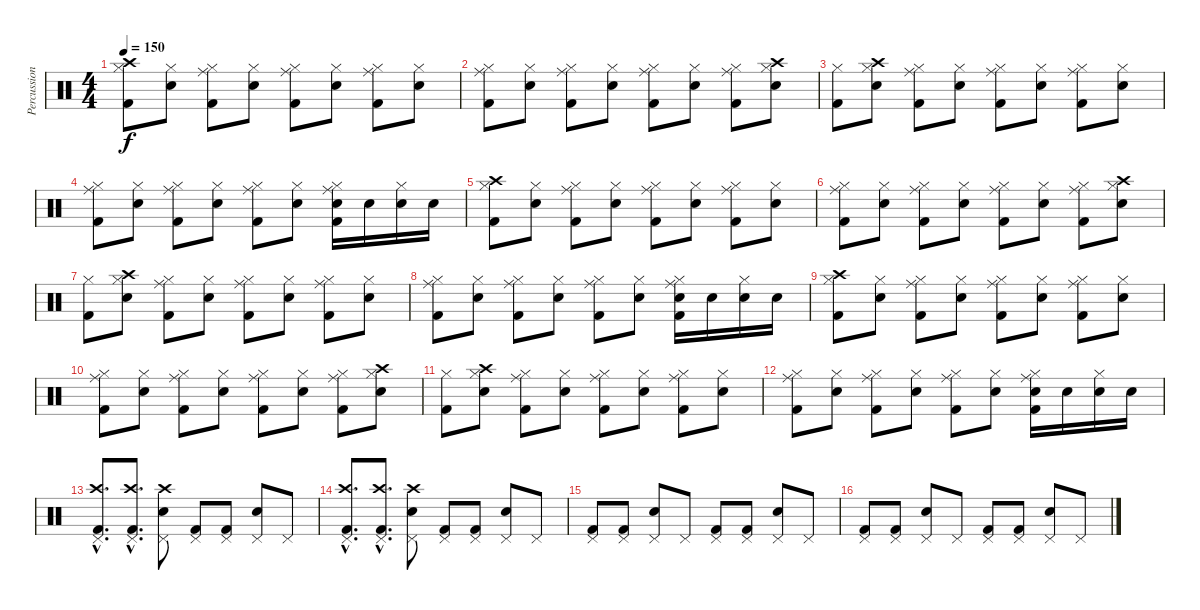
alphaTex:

\track ("Percussion" "Percussion") {instrument percussion}
\staff {score}
\articulation defaults
\ts (4 4)
\tempo 150
\clef neutral
\ks c
("Hi-Hat (closed)" "Kick (hit) 2" "Crash high (hit)").8{dy f} ("Hi-Hat (closed)" "Electric Snare (hit)").8 ("Hi-Hat (closed)" "Kick (hit) 2" "Ride (middle)").8 ("Hi-Hat (closed)" "Electric Snare (hit)").8 ("Hi-Hat (closed)" "Kick (hit) 2" "Ride (middle)").8 ("Hi-Hat (closed)" "Electric Snare (hit)").8 ("Hi-Hat (closed)" "Kick (hit) 2" "Ride (middle)").8 ("Hi-Hat (closed)" "Electric Snare (hit)").8 |
("Hi-Hat (closed)" "Kick (hit) 2" "Ride (middle)").8 ("Hi-Hat (closed)" "Electric Snare (hit)").8 ("Hi-Hat (closed)" "Kick (hit) 2" "Ride (middle)").8 ("Hi-Hat (closed)" "Electric Snare (hit)").8 ("Hi-Hat (closed)" "Kick (hit) 2" "Ride (middle)").8 ("Hi-Hat (closed)" "Electric Snare (hit)").8 ("Hi-Hat (closed)" "Kick (hit) 2" "Ride (middle)").8 ("Hi-Hat (closed)" "Electric Snare (hit)" "Crash high (hit)").8 |
("Hi-Hat (closed)" "Kick (hit) 2").8 ("Hi-Hat (closed)" "Electric Snare (hit)" "Crash high (hit)").8 ("Hi-Hat (closed)" "Kick (hit) 2" "Ride (middle)").8 ("Hi-Hat (closed)" "Electric Snare (hit)").8 ("Hi-Hat (closed)" "Kick (hit) 2" "Ride (middle)").8 ("Hi-Hat (closed)" "Electric Snare (hit)").8 ("Hi-Hat (closed)" "Kick (hit) 2" "Ride (middle)").8 ("Hi-Hat (closed)" "Electric Snare (hit)").8 |
("Hi-Hat (closed)" "Kick (hit) 2" "Ride (middle)").8 ("Hi-Hat (closed)" "Electric Snare (hit)").8 ("Hi-Hat (closed)" "Kick (hit) 2" "Ride (middle)").8 ("Hi-Hat (closed)" "Electric Snare (hit)").8 ("Hi-Hat (closed)" "Kick (hit) 2" "Ride (middle)").8 ("Hi-Hat (closed)" "Electric Snare (hit)").8 ("Hi-Hat (closed)" "Electric Snare (hit)" "Kick (hit) 2" "Ride (middle)").16 "Electric Snare (hit)".16 ("Hi-Hat (closed)" "Electric Snare (hit)").16 "Electric Snare (hit)".16 |
("Hi-Hat (closed)" "Kick (hit) 2" "Crash high (hit)").8 ("Hi-Hat (closed)" "Electric Snare (hit)").8 ("Hi-Hat (closed)" "Kick (hit) 2" "Ride (middle)").8 ("Hi-Hat (closed)" "Electric Snare (hit)").8 ("Hi-Hat (closed)" "Kick (hit) 2" "Ride (middle)").8 ("Hi-Hat (closed)" "Electric Snare (hit)").8 ("Hi-Hat (closed)" "Kick (hit) 2" "Ride (middle)").8 ("Hi-Hat (closed)" "Electric Snare (hit)").8 |
("Hi-Hat (closed)" "Kick (hit) 2" "Ride (middle)").8 ("Hi-Hat (closed)" "Electric Snare (hit)").8 ("Hi-Hat (closed)" "Kick (hit) 2" "Ride (middle)").8 ("Hi-Hat (closed)" "Electric Snare (hit)").8 ("Hi-Hat (closed)" "Kick (hit) 2" "Ride (middle)").8 ("Hi-Hat (closed)" "Electric Snare (hit)").8 ("Hi-Hat (closed)" "Kick (hit) 2" "Ride (middle)").8 ("Hi-Hat (closed)" "Electric Snare (hit)" "Crash high (hit)").8 |
("Hi-Hat (closed)" "Kick (hit) 2").8 ("Hi-Hat (closed)" "Electric Snare (hit)" "Crash high (hit)").8 ("Hi-Hat (closed)" "Kick (hit) 2" "Ride (middle)").8 ("Hi-Hat (closed)" "Electric Snare (hit)").8 ("Hi-Hat (closed)" "Kick (hit) 2" "Ride (middle)").8 ("Hi-Hat (closed)" "Electric Snare (hit)").8 ("Hi-Hat (closed)" "Kick (hit) 2" "Ride (middle)").8 ("Hi-Hat (closed)" "Electric Snare (hit)").8 |
("Hi-Hat (closed)" "Kick (hit) 2" "Ride (middle)").8 ("Hi-Hat (closed)" "Electric Snare (hit)").8 ("Hi-Hat (closed)" "Kick (hit) 2" "Ride (middle)").8 ("Hi-Hat (closed)" "Electric Snare (hit)").8 ("Hi-Hat (closed)" "Kick (hit) 2" "Ride (middle)").8 ("Hi-Hat (closed)" "Electric Snare (hit)").8 ("Hi-Hat (closed)" "Electric Snare (hit)" "Kick (hit) 2" "Ride (middle)").16 "Electric Snare (hit)".16 ("Hi-Hat (closed)" "Electric Snare (hit)").16 "Electric Snare (hit)".16 |
("Hi-Hat (closed)" "Kick (hit) 2" "Crash high (hit)").8 ("Hi-Hat (closed)" "Electric Snare (hit)").8 ("Hi-Hat (closed)" "Kick (hit) 2" "Ride (middle)").8 ("Hi-Hat (closed)" "Electric Snare (hit)").8 ("Hi-Hat (closed)" "Kick (hit) 2" "Ride (middle)").8 ("Hi-Hat (closed)" "Electric Snare (hit)").8 ("Hi-Hat (closed)" "Kick (hit) 2" "Ride (middle)").8 ("Hi-Hat (closed)" "Electric Snare (hit)").8 |
("Hi-Hat (closed)" "Kick (hit) 2" "Ride (middle)").8 ("Hi-Hat (closed)" "Electric Snare (hit)").8 ("Hi-Hat (closed)" "Kick (hit) 2" "Ride (middle)").8 ("Hi-Hat (closed)" "Electric Snare (hit)").8 ("Hi-Hat (closed)" "Kick (hit) 2" "Ride (middle)").8 ("Hi-Hat (closed)" "Electric Snare (hit)").8 ("Hi-Hat (closed)" "Kick (hit) 2" "Ride (middle)").8 ("Hi-Hat (closed)" "Electric Snare (hit)" "Crash high (hit)").8 |
("Hi-Hat (closed)" "Kick (hit) 2").8 ("Hi-Hat (closed)" "Electric Snare (hit)" "Crash high (hit)").8 ("Hi-Hat (closed)" "Kick (hit) 2" "Ride (middle)").8 ("Hi-Hat (closed)" "Electric Snare (hit)").8 ("Hi-Hat (closed)" "Kick (hit) 2" "Ride (middle)").8 ("Hi-Hat (closed)" "Electric Snare (hit)").8 ("Hi-Hat (closed)" "Kick (hit) 2" "Ride (middle)").8 ("Hi-Hat (closed)" "Electric Snare (hit)").8 |
("Hi-Hat (closed)" "Kick (hit) 2" "Ride (middle)").8 ("Hi-Hat (closed)" "Electric Snare (hit)").8 ("Hi-Hat (closed)" "Kick (hit) 2" "Ride (middle)").8 ("Hi-Hat (closed)" "Electric Snare (hit)").8 ("Hi-Hat (closed)" "Kick (hit) 2" "Ride (middle)").8 ("Hi-Hat (closed)" "Electric Snare (hit)").8 ("Hi-Hat (closed)" "Electric Snare (hit)" "Kick (hit) 2" "Ride (middle)").16 "Electric Snare (hit)".16 ("Hi-Hat (closed)" "Electric Snare (hit)").16 "Electric Snare (hit)".16 |
("Pedal Hi-Hat (hit)"{hac} "Kick (hit) 2"{hac} "Crash high (hit)"{hac}).8{d} ("Pedal Hi-Hat (hit)"{hac} "Kick (hit) 2"{hac} "Crash high (hit)"{hac}).8{d} ("Pedal Hi-Hat (hit)" "Electric Snare (hit)" "Crash high (hit)").8 ("Pedal Hi-Hat (hit)" "Kick (hit) 2").8 ("Pedal Hi-Hat (hit)" "Kick (hit) 2").8 ("Pedal Hi-Hat (hit)" "Electric Snare (hit)").8 "Pedal Hi-Hat (hit)".8 |
("Pedal Hi-Hat (hit)"{hac} "Kick (hit) 2"{hac} "Crash high (hit)"{hac}).8{d} ("Pedal Hi-Hat (hit)"{hac} "Kick (hit) 2"{hac} "Crash high (hit)"{hac}).8{d} ("Pedal Hi-Hat (hit)" "Electric Snare (hit)" "Crash high (hit)").8 ("Pedal Hi-Hat (hit)" "Kick (hit) 2").8 ("Pedal Hi-Hat (hit)" "Kick (hit) 2").8 ("Pedal Hi-Hat (hit)" "Electric Snare (hit)").8 "Pedal Hi-Hat (hit)".8 |
("Pedal Hi-Hat (hit)" "Kick (hit) 2").8 ("Pedal Hi-Hat (hit)" "Kick (hit) 2").8 ("Pedal Hi-Hat (hit)" "Electric Snare (hit)").8 "Pedal Hi-Hat (hit)".8 ("Pedal Hi-Hat (hit)" "Kick (hit) 2").8 ("Pedal Hi-Hat (hit)" "Kick (hit) 2").8 ("Pedal Hi-Hat (hit)" "Electric Snare (hit)").8 "Pedal Hi-Hat (hit)".8 |
("Pedal Hi-Hat (hit)" "Kick (hit) 2").8 ("Pedal Hi-Hat (hit)" "Kick (hit) 2").8 ("Pedal Hi-Hat (hit)" "Electric Snare (hit)").8 "Pedal Hi-Hat (hit)".8 ("Pedal Hi-Hat (hit)" "Kick (hit) 2").8 ("Pedal Hi-Hat (hit)" "Kick (hit) 2").8 ("Pedal Hi-Hat (hit)" "Electric Snare (hit)").8 "Pedal Hi-Hat (hit)".8
